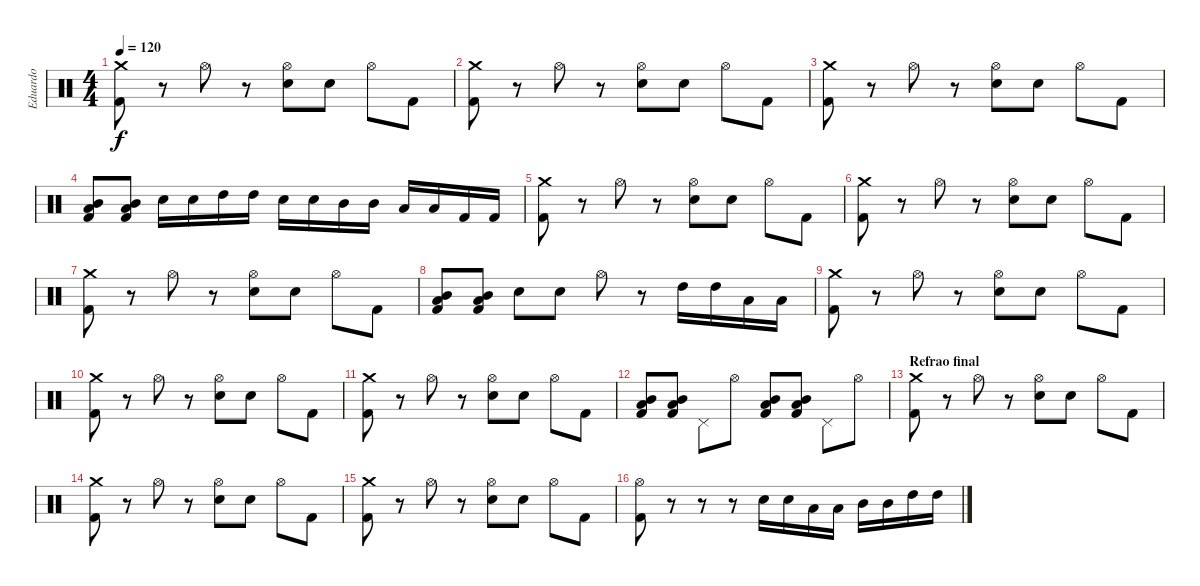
\track ("Eduardo" "Eduardo") {instrument percussion}
\staff {score}
\articulation defaults
\ts (4 4)
\tempo 120
\clef neutral
\ks c
("Crash medium (hit)" "Kick (hit) 2").8{dy f} r.8 "Hi-Hat (open)".8 r.8 ("Hi-Hat (open)" "Snare (hit) 2").8 "Snare (hit) 2".8 "Hi-Hat (open)".8 "Kick (hit) 2".8 |
("Crash medium (hit)" "Kick (hit) 2").8 r.8 "Hi-Hat (open)".8 r.8 ("Hi-Hat (open)" "Snare (hit) 2").8 "Snare (hit) 2".8 "Hi-Hat (open)".8 "Kick (hit) 2".8 |
("Crash medium (hit)" "Kick (hit) 2").8 r.8 "Hi-Hat (open)".8 r.8 ("Hi-Hat (open)" "Snare (hit) 2").8 "Snare (hit) 2".8 "Hi-Hat (open)".8 "Kick (hit) 2".8 |
("Mid Tom (hit)" "Low Tom (hit)" "Kick (hit) 2").8 ("Mid Tom (hit)" "Low Tom (hit)" "Kick (hit) 2").8 "Snare (hit) 2".16 "Snare (hit) 2".16 "High Tom (hit)".16 "High Tom (hit)".16 "Snare (hit) 2".16 "Snare (hit) 2".16 "Mid Tom (hit)".16 "Mid Tom (hit)".16 "Low Tom (hit)".16 "Low Tom (hit)".16 "Kick (hit) 2".16 "Kick (hit) 2".16 |
("Crash medium (hit)" "Kick (hit) 2").8 r.8 "Hi-Hat (open)".8 r.8 ("Hi-Hat (open)" "Snare (hit) 2").8 "Snare (hit) 2".8 "Hi-Hat (open)".8 "Kick (hit) 2".8 |
("Crash medium (hit)" "Kick (hit) 2").8 r.8 "Hi-Hat (open)".8 r.8 ("Hi-Hat (open)" "Snare (hit) 2").8 "Snare (hit) 2".8 "Hi-Hat (open)".8 "Kick (hit) 2".8 |
("Crash medium (hit)" "Kick (hit) 2").8 r.8 "Hi-Hat (open)".8 r.8 ("Hi-Hat (open)" "Snare (hit) 2").8 "Snare (hit) 2".8 "Hi-Hat (open)".8 "Kick (hit) 2".8 |
("Mid Tom (hit)" "Low Tom (hit)" "Kick (hit) 2").8 ("Mid Tom (hit)" "Low Tom (hit)" "Kick (hit) 2").8 "Snare (hit) 2".8 "Snare (hit) 2".8 "Hi-Hat (open)".8 r.8 "High Tom (hit)".16 "High Tom (hit)".16 "Low Tom (hit)".16 "Low Tom (hit)".16 |
("Crash medium (hit)" "Kick (hit) 2").8 r.8 "Hi-Hat (open)".8 r.8 ("Hi-Hat (open)" "Snare (hit) 2").8 "Snare (hit) 2".8 "Hi-Hat (open)".8 "Kick (hit) 2".8 |
("Crash medium (hit)" "Kick (hit) 2").8 r.8 "Hi-Hat (open)".8 r.8 ("Hi-Hat (open)" "Snare (hit) 2").8 "Snare (hit) 2".8 "Hi-Hat (open)".8 "Kick (hit) 2".8 |
("Crash medium (hit)" "Kick (hit) 2").8 r.8 "Hi-Hat (open)".8 r.8 ("Hi-Hat (open)" "Snare (hit) 2").8 "Snare (hit) 2".8 "Hi-Hat (open)".8 "Kick (hit) 2".8 |
("Mid Tom (hit)" "Low Tom (hit)" "Kick (hit) 2").8 ("Mid Tom (hit)" "Low Tom (hit)" "Kick (hit) 2").8 "Pedal Hi-Hat (hit)".8 "Hi-Hat (open)".8 ("Mid Tom (hit)" "Low Tom (hit)" "Kick (hit) 2").8 ("Mid Tom (hit)" "Low Tom (hit)" "Kick (hit) 2").8 "Pedal Hi-Hat (hit)".8 "Hi-Hat (open)".8 |
\section ("" "Refrao final")
("Crash medium (hit)" "Kick (hit) 2").8 r.8 "Hi-Hat (open)".8 r.8 ("Hi-Hat (open)" "Snare (hit) 2").8 "Snare (hit) 2".8 "Hi-Hat (open)".8 "Kick (hit) 2".8 |
("Crash medium (hit)" "Kick (hit) 2").8 r.8 "Hi-Hat (open)".8 r.8 ("Hi-Hat (open)" "Snare (hit) 2").8 "Snare (hit) 2".8 "Hi-Hat (open)".8 "Kick (hit) 2".8 |
("Crash medium (hit)" "Kick (hit) 2").8 r.8 "Hi-Hat (open)".8 r.8 ("Hi-Hat (open)" "Snare (hit) 2").8 "Snare (hit) 2".8 "Hi-Hat (open)".8 "Kick (hit) 2".8 |
("Hi-Hat (open)" "Kick (hit) 2").8 r.8 r.8 r.8 "Snare (hit) 2".16 "Snare (hit) 2".16 "Low Tom (hit)".16 "Low Tom (hit)".16 "Mid Tom (hit)".16 "Mid Tom (hit)".16 "High Tom (hit)".16 "High Tom (hit)".16
